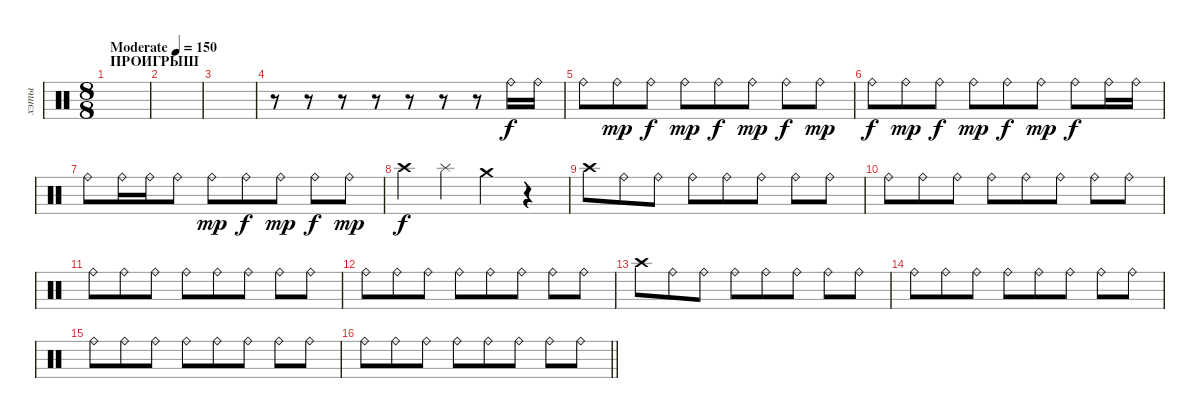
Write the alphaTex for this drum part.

\track ("хэты" "хэты") {instrument percussion}
\staff {score}
\articulation defaults
\ts (8 8)
\section ("" "ПРОИГРЫШ")
\tempo (150 "Moderate")
\clef neutral
\ks c
|
|
|
r.8 r.8 r.8 r.8 r.8 r.8 r.8 "Ride (bell)".16 "Ride (bell)".16 |
"Ride (bell)".8 "Ride (bell)".8{dy mp} "Ride (bell)".8{dy f} "Ride (bell)".8{dy mp} "Ride (bell)".8{dy f} "Ride (bell)".8{dy mp} "Ride (bell)".8{dy f} "Ride (bell)".8{dy mp} |
"Ride (bell)".8{dy f} "Ride (bell)".8{dy mp} "Ride (bell)".8{dy f} "Ride (bell)".8{dy mp} "Ride (bell)".8{dy f} "Ride (bell)".8{dy mp} "Ride (bell)".8{dy f} "Ride (bell)".16 "Ride (bell)".16 |
"Ride (bell)".8 "Ride (bell)".16 "Ride (bell)".16 "Ride (bell)".8 "Ride (bell)".8{dy mp} "Ride (bell)".8{dy f} "Ride (bell)".8{dy mp} "Ride (bell)".8{dy f} "Ride (bell)".8{dy mp} |
"Crash high (hit)".4{dy f} "Splash (hit)".4 "Crash medium (hit)".4 r.4 |
"Crash high (hit)".8 "Ride (bell)".8 "Ride (bell)".8 "Ride (bell)".8 "Ride (bell)".8 "Ride (bell)".8 "Ride (bell)".8 "Ride (bell)".8 |
"Ride (bell)".8 "Ride (bell)".8 "Ride (bell)".8 "Ride (bell)".8 "Ride (bell)".8 "Ride (bell)".8 "Ride (bell)".8 "Ride (bell)".8 |
"Ride (bell)".8 "Ride (bell)".8 "Ride (bell)".8 "Ride (bell)".8 "Ride (bell)".8 "Ride (bell)".8 "Ride (bell)".8 "Ride (bell)".8 |
"Ride (bell)".8 "Ride (bell)".8 "Ride (bell)".8 "Ride (bell)".8 "Ride (bell)".8 "Ride (bell)".8 "Ride (bell)".8 "Ride (bell)".8 |
"Crash high (hit)".8 "Ride (bell)".8 "Ride (bell)".8 "Ride (bell)".8 "Ride (bell)".8 "Ride (bell)".8 "Ride (bell)".8 "Ride (bell)".8 |
"Ride (bell)".8 "Ride (bell)".8 "Ride (bell)".8 "Ride (bell)".8 "Ride (bell)".8 "Ride (bell)".8 "Ride (bell)".8 "Ride (bell)".8 |
"Ride (bell)".8 "Ride (bell)".8 "Ride (bell)".8 "Ride (bell)".8 "Ride (bell)".8 "Ride (bell)".8 "Ride (bell)".8 "Ride (bell)".8 |
\barLineRight lightlight "Ride (bell)".8 "Ride (bell)".8 "Ride (bell)".8 "Ride (bell)".8 "Ride (bell)".8 "Ride (bell)".8 "Ride (bell)".8 "Ride (bell)".8
